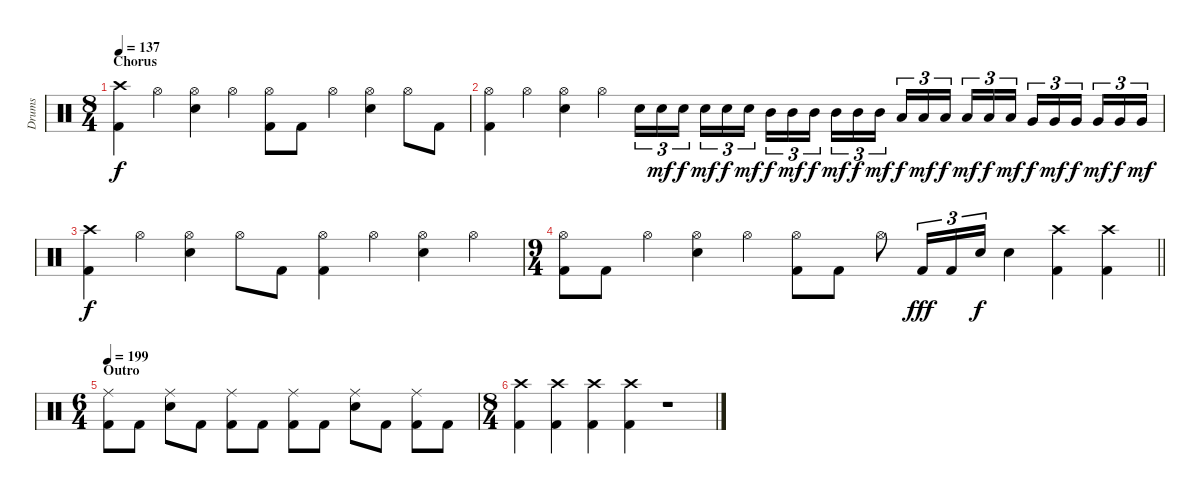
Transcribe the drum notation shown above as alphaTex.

\track ("Drums" "Drums") {instrument percussion}
\staff {score}
\articulation defaults
\ts (8 4)
\section ("" "Chorus")
\tempo 137
\clef neutral
\ks c
("Crash high (hit)" "Kick (hit) 2").4{dy f} "Hi-Hat (open)".4 ("Hi-Hat (open)" "Snare (hit) 2").4 "Hi-Hat (open)".4 ("Hi-Hat (open)" "Kick (hit) 2").8 "Kick (hit) 2".8 "Hi-Hat (open)".4 ("Hi-Hat (open)" "Snare (hit) 2").4 "Hi-Hat (open)".8 "Kick (hit) 2".8 |
("Hi-Hat (open)" "Kick (hit) 2").4 "Hi-Hat (open)".4 ("Hi-Hat (open)" "Snare (hit) 2").4 "Hi-Hat (open)".4 "Snare (hit) 2".16{tu (3 2)} "Snare (hit) 2".16{tu (3 2) dy mf} "Snare (hit) 2".16{tu (3 2) dy f beam splitsecondary} "Snare (hit) 2".16{tu (3 2) dy mf} "Snare (hit) 2".16{tu (3 2) dy f} "Snare (hit) 2".16{tu (3 2) dy mf} "Mid Tom (hit)".16{tu (3 2) dy f} "Mid Tom (hit)".16{tu (3 2) dy mf} "Mid Tom (hit)".16{tu (3 2) dy f beam splitsecondary} "Mid Tom (hit)".16{tu (3 2) dy mf} "Mid Tom (hit)".16{tu (3 2) dy f} "Mid Tom (hit)".16{tu (3 2) dy mf} "Low Tom (hit)".16{tu (3 2) dy f} "Low Tom (hit)".16{tu (3 2) dy mf} "Low Tom (hit)".16{tu (3 2) dy f beam splitsecondary} "Low Tom (hit)".16{tu (3 2) dy mf} "Low Tom (hit)".16{tu (3 2) dy f} "Low Tom (hit)".16{tu (3 2) dy mf} "Very Low Tom (hit)".16{tu (3 2) dy f} "Very Low Tom (hit)".16{tu (3 2) dy mf} "Very Low Tom (hit)".16{tu (3 2) dy f beam splitsecondary} "Very Low Tom (hit)".16{tu (3 2) dy mf} "Very Low Tom (hit)".16{tu (3 2) dy f} "Very Low Tom (hit)".16{tu (3 2) dy mf} |
("Crash high (hit)" "Kick (hit) 2").4{dy f} "Hi-Hat (open)".4 ("Hi-Hat (open)" "Snare (hit) 2").4 "Hi-Hat (open)".8 "Kick (hit) 2".8 ("Hi-Hat (open)" "Kick (hit) 2").4 "Hi-Hat (open)".4 ("Hi-Hat (open)" "Snare (hit) 2").4 "Hi-Hat (open)".4 |
\ts (9 4)
\barLineRight lightlight
("Hi-Hat (open)" "Kick (hit) 2").8 "Kick (hit) 2".8 "Hi-Hat (open)".4 ("Hi-Hat (open)" "Snare (hit) 2").4 "Hi-Hat (open)".4 ("Hi-Hat (open)" "Kick (hit) 2").8 "Kick (hit) 2".8 "Hi-Hat (open)".8 "Kick (hit) 2".16{tu (3 2) dy fff} "Kick (hit) 2".16{tu (3 2)} "Snare (hit) 2".16{tu (3 2) dy f} "Snare (hit) 2".4 ("Crash high (hit)" "Kick (hit) 2").4 ("Crash high (hit)" "Kick (hit) 2").4 |
\ts (6 4)
\section ("" "Outro")
\tempo 199
("Ride (middle)" "Kick (hit) 2").8 "Kick (hit) 2".8 ("Ride (middle)" "Snare (hit) 2").8 "Kick (hit) 2".8 ("Ride (middle)" "Kick (hit) 2").8 "Kick (hit) 2".8 ("Ride (middle)" "Kick (hit) 2").8 "Kick (hit) 2".8 ("Ride (middle)" "Snare (hit) 2").8 "Kick (hit) 2".8 ("Ride (middle)" "Kick (hit) 2").8 "Kick (hit) 2".8 |
\ts (8 4)
("Crash high (hit)" "Kick (hit) 2").4 ("Crash high (hit)" "Kick (hit) 2").4 ("Crash high (hit)" "Kick (hit) 2").4 ("Crash high (hit)" "Kick (hit) 2").4 r.1
